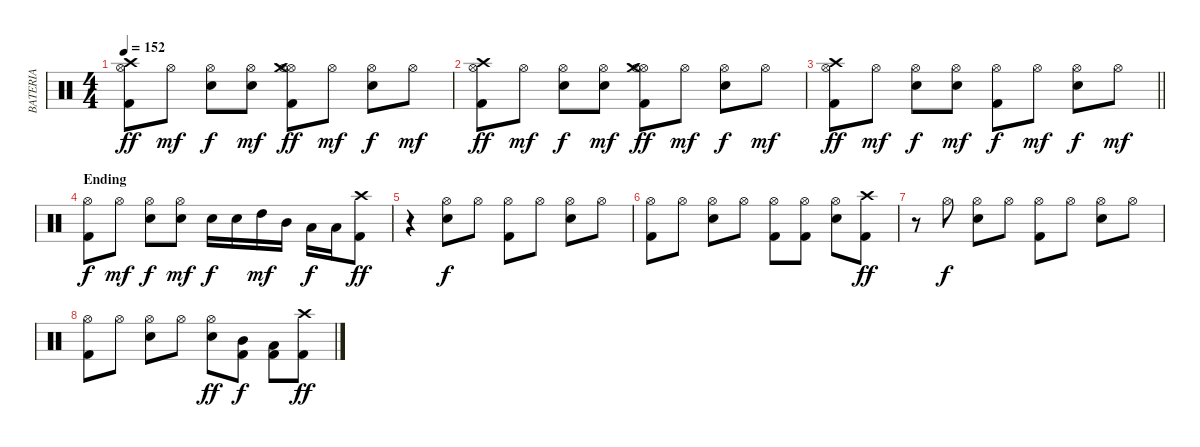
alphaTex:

\track ("BATERIA" "BATERIA") {instrument percussion}
\staff {score}
\articulation defaults
\ts (4 4)
\tempo 152
\clef neutral
\ks c
("Kick (hit) 2" "Crash high (hit)" "Hi-Hat (open)").8{dy ff} "Hi-Hat (open)".8{dy mf} ("Snare (hit) 2" "Hi-Hat (open)").8{dy f} ("Snare (hit) 2" "Hi-Hat (open)").8{dy mf} ("Kick (hit) 2" "Hi-Hat (open)" "Hi-Hat (open)" "Crash medium (hit)").8{dy ff} "Hi-Hat (open)".8{dy mf} ("Snare (hit) 2" "Hi-Hat (open)").8{dy f} "Hi-Hat (open)".8{dy mf} |
("Kick (hit) 2" "Crash high (hit)" "Hi-Hat (open)").8{dy ff} "Hi-Hat (open)".8{dy mf} ("Snare (hit) 2" "Hi-Hat (open)").8{dy f} ("Snare (hit) 2" "Hi-Hat (open)").8{dy mf} ("Kick (hit) 2" "Hi-Hat (open)" "Hi-Hat (open)" "Crash medium (hit)").8{dy ff} "Hi-Hat (open)".8{dy mf} ("Snare (hit) 2" "Hi-Hat (open)").8{dy f} "Hi-Hat (open)".8{dy mf} |
\barLineRight lightlight
("Kick (hit) 2" "Crash high (hit)" "Hi-Hat (open)").8{dy ff} "Hi-Hat (open)".8{dy mf} ("Snare (hit) 2" "Hi-Hat (open)").8{dy f} ("Snare (hit) 2" "Hi-Hat (open)").8{dy mf} ("Kick (hit) 2" "Hi-Hat (open)").8{dy f} "Hi-Hat (open)".8{dy mf} ("Snare (hit) 2" "Hi-Hat (open)").8{dy f} "Hi-Hat (open)".8{dy mf} |
\section ("" "Ending")
("Hi-Hat (open)" "Kick (hit) 2").8{dy f} "Hi-Hat (open)".8{dy mf} ("Snare (hit) 2" "Hi-Hat (open)").8{dy f} ("Snare (hit) 2" "Hi-Hat (open)").8{dy mf} "Snare (hit) 2".16{dy f} "Snare (hit) 2".16 "High Tom (hit)".16{dy mf} "Mid Tom (hit)".16 "Low Tom (hit)".16{dy f} "Low Tom (hit)".16 ("Crash high (hit)" "Kick (hit) 2").8{dy ff} |
r.4 ("Snare (hit) 2" "Hi-Hat (open)").8{dy f} "Hi-Hat (open)".8 ("Hi-Hat (open)" "Kick (hit) 2").8 "Hi-Hat (open)".8 ("Hi-Hat (open)" "Snare (hit) 2").8 "Hi-Hat (open)".8 |
("Hi-Hat (open)" "Kick (hit) 2").8 "Hi-Hat (open)".8 ("Hi-Hat (open)" "Snare (hit) 2").8 "Hi-Hat (open)".8 ("Hi-Hat (open)" "Kick (hit) 2").8 ("Hi-Hat (open)" "Kick (hit) 2").8 ("Hi-Hat (open)" "Snare (hit) 2").8 ("Crash high (hit)" "Kick (hit) 2").8{dy ff} |
r.8 "Hi-Hat (open)".8{dy f} ("Hi-Hat (open)" "Snare (hit) 2").8 "Hi-Hat (open)".8 ("Hi-Hat (open)" "Kick (hit) 2").8 "Hi-Hat (open)".8 ("Hi-Hat (open)" "Snare (hit) 2").8 "Hi-Hat (open)".8 |
("Hi-Hat (open)" "Kick (hit) 2").8 "Hi-Hat (open)".8 ("Hi-Hat (open)" "Snare (hit) 2").8 "Hi-Hat (open)".8 ("Hi-Hat (open)" "Snare (hit) 2").8{dy ff} ("Kick (hit) 2" "Mid Tom (hit)").8{dy f} ("Kick (hit) 2" "Low Tom (hit)").8 ("Crash high (hit)" "Kick (hit) 2").8{dy ff}
